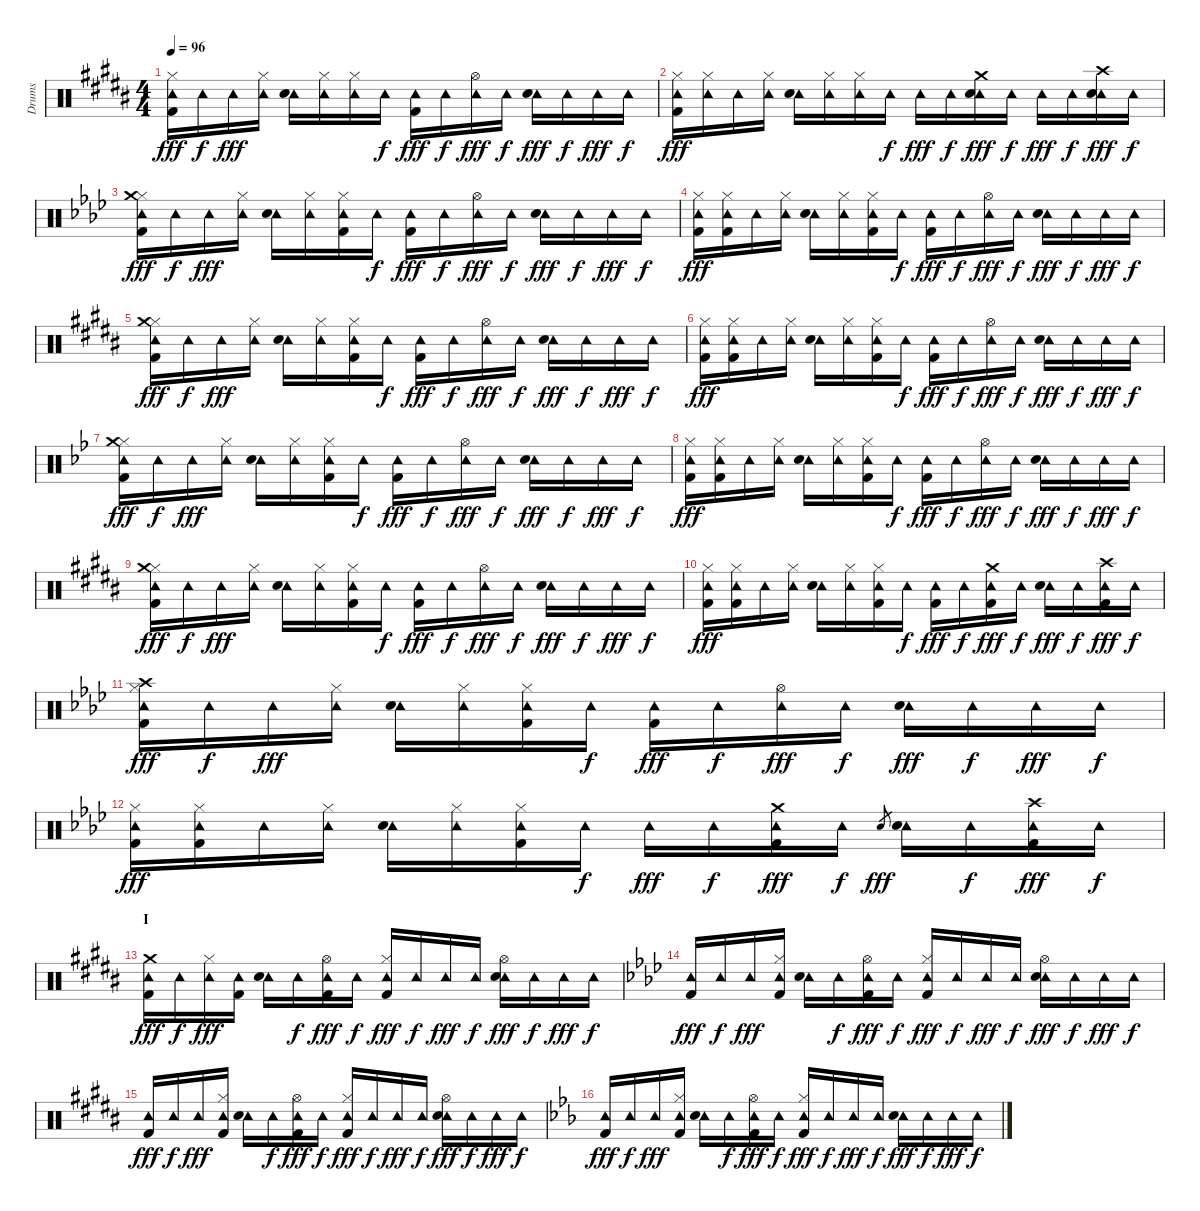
\track ("Drums" "Drums") {instrument percussion}
\staff {score}
\articulation defaults
\ts (4 4)
\tempo 96
\clef neutral
\ks b
("Tambourine (hit)" "Hi-Hat (closed)" "Kick (hit) 2").16{dy fff} "Tambourine (hit)".16{dy f} "Tambourine (hit)".16{dy fff} ("Tambourine (hit)" "Hi-Hat (closed)").16 ("Tambourine (hit)" "Snare (hit) 2").16 ("Tambourine (hit)" "Hi-Hat (closed)").16 ("Tambourine (hit)" "Hi-Hat (closed)").16 "Tambourine (hit)".16{dy f} ("Tambourine (hit)" "Kick (hit) 2").16{dy fff} "Tambourine (hit)".16{dy f} ("Tambourine (hit)" "Hi-Hat (open)").16{dy fff} "Tambourine (hit)".16{dy f} ("Tambourine (hit)" "Snare (hit) 2").16{dy fff} "Tambourine (hit)".16{dy f} "Tambourine (hit)".16{dy fff} "Tambourine (hit)".16{dy f} |
("Tambourine (hit)" "Hi-Hat (closed)" "Kick (hit) 2").16{dy fff} ("Tambourine (hit)" "Hi-Hat (closed)").16 "Tambourine (hit)".16 ("Tambourine (hit)" "Hi-Hat (closed)").16 ("Tambourine (hit)" "Snare (hit) 2").16 ("Tambourine (hit)" "Hi-Hat (closed)").16 ("Tambourine (hit)" "Hi-Hat (closed)").16 "Tambourine (hit)".16{dy f} "Tambourine (hit)".16{dy fff} "Tambourine (hit)".16{dy f} ("Tambourine (hit)" "Crash medium (hit)" "Snare (hit) 2").16{dy fff} "Tambourine (hit)".16{dy f} "Tambourine (hit)".16{dy fff} "Tambourine (hit)".16{dy f} ("Tambourine (hit)" "Crash high (hit)" "Snare (hit) 2").16{dy fff} "Tambourine (hit)".16{dy f} |
\ks ab
("Tambourine (hit)" "Hi-Hat (closed)" "Crash medium (hit)" "Kick (hit) 2").16{dy fff} "Tambourine (hit)".16{dy f} "Tambourine (hit)".16{dy fff} ("Tambourine (hit)" "Hi-Hat (closed)").16 ("Tambourine (hit)" "Snare (hit) 2").16 ("Tambourine (hit)" "Hi-Hat (closed)").16 ("Tambourine (hit)" "Hi-Hat (closed)" "Kick (hit) 2").16 "Tambourine (hit)".16{dy f} ("Tambourine (hit)" "Kick (hit) 2").16{dy fff} "Tambourine (hit)".16{dy f} ("Tambourine (hit)" "Hi-Hat (open)").16{dy fff} "Tambourine (hit)".16{dy f} ("Tambourine (hit)" "Snare (hit) 2").16{dy fff} "Tambourine (hit)".16{dy f} "Tambourine (hit)".16{dy fff} "Tambourine (hit)".16{dy f} |
("Tambourine (hit)" "Hi-Hat (closed)" "Kick (hit) 2").16{dy fff} ("Tambourine (hit)" "Hi-Hat (closed)" "Kick (hit) 2").16 "Tambourine (hit)".16 ("Tambourine (hit)" "Hi-Hat (closed)").16 ("Tambourine (hit)" "Snare (hit) 2").16 ("Tambourine (hit)" "Hi-Hat (closed)").16 ("Tambourine (hit)" "Hi-Hat (closed)" "Kick (hit) 2").16 "Tambourine (hit)".16{dy f} ("Tambourine (hit)" "Kick (hit) 2").16{dy fff} "Tambourine (hit)".16{dy f} ("Tambourine (hit)" "Hi-Hat (open)").16{dy fff} "Tambourine (hit)".16{dy f} ("Tambourine (hit)" "Snare (hit) 2").16{dy fff} "Tambourine (hit)".16{dy f} "Tambourine (hit)".16{dy fff} "Tambourine (hit)".16{dy f} |
\ks b
("Tambourine (hit)" "Hi-Hat (closed)" "Crash medium (hit)" "Kick (hit) 2").16{dy fff} "Tambourine (hit)".16{dy f} "Tambourine (hit)".16{dy fff} ("Tambourine (hit)" "Hi-Hat (closed)").16 ("Tambourine (hit)" "Snare (hit) 2").16 ("Tambourine (hit)" "Hi-Hat (closed)").16 ("Tambourine (hit)" "Hi-Hat (closed)" "Kick (hit) 2").16 "Tambourine (hit)".16{dy f} ("Tambourine (hit)" "Kick (hit) 2").16{dy fff} "Tambourine (hit)".16{dy f} ("Tambourine (hit)" "Hi-Hat (open)").16{dy fff} "Tambourine (hit)".16{dy f} ("Tambourine (hit)" "Snare (hit) 2").16{dy fff} "Tambourine (hit)".16{dy f} "Tambourine (hit)".16{dy fff} "Tambourine (hit)".16{dy f} |
("Tambourine (hit)" "Hi-Hat (closed)" "Kick (hit) 2").16{dy fff} ("Tambourine (hit)" "Hi-Hat (closed)" "Kick (hit) 2").16 "Tambourine (hit)".16 ("Tambourine (hit)" "Hi-Hat (closed)").16 ("Tambourine (hit)" "Snare (hit) 2").16 ("Tambourine (hit)" "Hi-Hat (closed)").16 ("Tambourine (hit)" "Hi-Hat (closed)" "Kick (hit) 2").16 "Tambourine (hit)".16{dy f} ("Tambourine (hit)" "Kick (hit) 2").16{dy fff} "Tambourine (hit)".16{dy f} ("Tambourine (hit)" "Hi-Hat (open)").16{dy fff} "Tambourine (hit)".16{dy f} ("Tambourine (hit)" "Snare (hit) 2").16{dy fff} "Tambourine (hit)".16{dy f} "Tambourine (hit)".16{dy fff} "Tambourine (hit)".16{dy f} |
\ks bb
("Tambourine (hit)" "Hi-Hat (closed)" "Crash medium (hit)" "Kick (hit) 2").16{dy fff} "Tambourine (hit)".16{dy f} "Tambourine (hit)".16{dy fff} ("Tambourine (hit)" "Hi-Hat (closed)").16 ("Tambourine (hit)" "Snare (hit) 2").16 ("Tambourine (hit)" "Hi-Hat (closed)").16 ("Tambourine (hit)" "Hi-Hat (closed)" "Kick (hit) 2").16 "Tambourine (hit)".16{dy f} ("Tambourine (hit)" "Kick (hit) 2").16{dy fff} "Tambourine (hit)".16{dy f} ("Tambourine (hit)" "Hi-Hat (open)").16{dy fff} "Tambourine (hit)".16{dy f} ("Tambourine (hit)" "Snare (hit) 2").16{dy fff} "Tambourine (hit)".16{dy f} "Tambourine (hit)".16{dy fff} "Tambourine (hit)".16{dy f} |
("Tambourine (hit)" "Hi-Hat (closed)" "Kick (hit) 2").16{dy fff} ("Tambourine (hit)" "Hi-Hat (closed)" "Kick (hit) 2").16 "Tambourine (hit)".16 ("Tambourine (hit)" "Hi-Hat (closed)").16 ("Tambourine (hit)" "Snare (hit) 2").16 ("Tambourine (hit)" "Hi-Hat (closed)").16 ("Tambourine (hit)" "Hi-Hat (closed)" "Kick (hit) 2").16 "Tambourine (hit)".16{dy f} ("Tambourine (hit)" "Kick (hit) 2").16{dy fff} "Tambourine (hit)".16{dy f} ("Tambourine (hit)" "Hi-Hat (open)").16{dy fff} "Tambourine (hit)".16{dy f} ("Tambourine (hit)" "Snare (hit) 2").16{dy fff} "Tambourine (hit)".16{dy f} "Tambourine (hit)".16{dy fff} "Tambourine (hit)".16{dy f} |
\ks b
("Tambourine (hit)" "Hi-Hat (closed)" "Crash medium (hit)" "Kick (hit) 2").16{dy fff} "Tambourine (hit)".16{dy f} "Tambourine (hit)".16{dy fff} ("Tambourine (hit)" "Hi-Hat (closed)").16 ("Tambourine (hit)" "Snare (hit) 2").16 ("Tambourine (hit)" "Hi-Hat (closed)").16 ("Tambourine (hit)" "Hi-Hat (closed)" "Kick (hit) 2").16 "Tambourine (hit)".16{dy f} ("Tambourine (hit)" "Kick (hit) 2").16{dy fff} "Tambourine (hit)".16{dy f} ("Tambourine (hit)" "Hi-Hat (open)").16{dy fff} "Tambourine (hit)".16{dy f} ("Tambourine (hit)" "Snare (hit) 2").16{dy fff} "Tambourine (hit)".16{dy f} "Tambourine (hit)".16{dy fff} "Tambourine (hit)".16{dy f} |
("Tambourine (hit)" "Hi-Hat (closed)" "Kick (hit) 2").16{dy fff} ("Tambourine (hit)" "Hi-Hat (closed)" "Kick (hit) 2").16 "Tambourine (hit)".16 ("Tambourine (hit)" "Hi-Hat (closed)").16 ("Tambourine (hit)" "Snare (hit) 2").16 ("Tambourine (hit)" "Hi-Hat (closed)").16 ("Tambourine (hit)" "Hi-Hat (closed)" "Kick (hit) 2").16 "Tambourine (hit)".16{dy f} ("Tambourine (hit)" "Kick (hit) 2").16{dy fff} "Tambourine (hit)".16{dy f} ("Tambourine (hit)" "Crash medium (hit)" "Kick (hit) 2").16{dy fff} "Tambourine (hit)".16{dy f} ("Tambourine (hit)" "Snare (hit) 2").16{dy fff} "Tambourine (hit)".16{dy f} ("Tambourine (hit)" "Crash high (hit)" "Kick (hit) 2").16{dy fff} "Tambourine (hit)".16{dy f} |
\ks ab
("Tambourine (hit)" "Hi-Hat (closed)" "Crash high (hit)" "Kick (hit) 2").16{dy fff} "Tambourine (hit)".16{dy f} "Tambourine (hit)".16{dy fff} ("Tambourine (hit)" "Hi-Hat (closed)").16 ("Tambourine (hit)" "Snare (hit) 2").16 ("Tambourine (hit)" "Hi-Hat (closed)").16 ("Tambourine (hit)" "Hi-Hat (closed)" "Kick (hit) 2").16 "Tambourine (hit)".16{dy f} ("Tambourine (hit)" "Kick (hit) 2").16{dy fff} "Tambourine (hit)".16{dy f} ("Tambourine (hit)" "Hi-Hat (open)").16{dy fff} "Tambourine (hit)".16{dy f} ("Tambourine (hit)" "Snare (hit) 2").16{dy fff} "Tambourine (hit)".16{dy f} "Tambourine (hit)".16{dy fff} "Tambourine (hit)".16{dy f} |
("Tambourine (hit)" "Hi-Hat (closed)" "Kick (hit) 2").16{dy fff} ("Tambourine (hit)" "Hi-Hat (closed)" "Kick (hit) 2").16 "Tambourine (hit)".16 ("Tambourine (hit)" "Hi-Hat (closed)").16 ("Tambourine (hit)" "Snare (hit) 2").16 ("Tambourine (hit)" "Hi-Hat (closed)").16 ("Tambourine (hit)" "Hi-Hat (closed)" "Kick (hit) 2").16 "Tambourine (hit)".16{dy f} "Tambourine (hit)".16{dy fff} "Tambourine (hit)".16{dy f} ("Tambourine (hit)" "Crash medium (hit)" "Kick (hit) 2").16{dy fff} "Tambourine (hit)".16{dy f} "Snare (hit) 2".8{gr dy fff} ("Tambourine (hit)" "Snare (hit) 2").16 "Tambourine (hit)".16{dy f} ("Tambourine (hit)" "Crash high (hit)" "Kick (hit) 2").16{dy fff} "Tambourine (hit)".16{dy f} |
\section ("" "I")
\ks b
("Tambourine (hit)" "Crash medium (hit)" "Kick (hit) 2").16{dy fff} "Tambourine (hit)".16{dy f} ("Tambourine (hit)" "Hi-Hat (closed)").16{dy fff} ("Tambourine (hit)" "Kick (hit) 2").16 ("Tambourine (hit)" "Snare (hit) 2").16 "Tambourine (hit)".16{dy f} ("Tambourine (hit)" "Hi-Hat (open)" "Kick (hit) 2").16{dy fff} "Tambourine (hit)".16{dy f} ("Tambourine (hit)" "Hi-Hat (closed)" "Kick (hit) 2").16{dy fff} "Tambourine (hit)".16{dy f} "Tambourine (hit)".16{dy fff} "Tambourine (hit)".16{dy f} ("Tambourine (hit)" "Hi-Hat (open)" "Snare (hit) 2").16{dy fff} "Tambourine (hit)".16{dy f} "Tambourine (hit)".16{dy fff} "Tambourine (hit)".16{dy f} |
\ks ab
("Tambourine (hit)" "Kick (hit) 2").16{dy fff} "Tambourine (hit)".16{dy f} "Tambourine (hit)".16{dy fff} ("Tambourine (hit)" "Hi-Hat (closed)" "Kick (hit) 2").16 ("Tambourine (hit)" "Snare (hit) 2").16 "Tambourine (hit)".16{dy f} ("Tambourine (hit)" "Hi-Hat (open)" "Kick (hit) 2").16{dy fff} "Tambourine (hit)".16{dy f} ("Tambourine (hit)" "Hi-Hat (closed)" "Kick (hit) 2").16{dy fff} "Tambourine (hit)".16{dy f} "Tambourine (hit)".16{dy fff} "Tambourine (hit)".16{dy f} ("Tambourine (hit)" "Hi-Hat (open)" "Snare (hit) 2").16{dy fff} "Tambourine (hit)".16{dy f} "Tambourine (hit)".16{dy fff} "Tambourine (hit)".16{dy f} |
\ks b
("Tambourine (hit)" "Kick (hit) 2").16{dy fff} "Tambourine (hit)".16{dy f} "Tambourine (hit)".16{dy fff} ("Tambourine (hit)" "Hi-Hat (closed)" "Kick (hit) 2").16 ("Tambourine (hit)" "Snare (hit) 2").16 "Tambourine (hit)".16{dy f} ("Tambourine (hit)" "Hi-Hat (open)" "Kick (hit) 2").16{dy fff} "Tambourine (hit)".16{dy f} ("Tambourine (hit)" "Hi-Hat (closed)" "Kick (hit) 2").16{dy fff} "Tambourine (hit)".16{dy f} "Tambourine (hit)".16{dy fff} "Tambourine (hit)".16{dy f} ("Tambourine (hit)" "Hi-Hat (open)" "Snare (hit) 2").16{dy fff} "Tambourine (hit)".16{dy f} "Tambourine (hit)".16{dy fff} "Tambourine (hit)".16{dy f} |
\ks eb
("Tambourine (hit)" "Kick (hit) 2").16{dy fff} "Tambourine (hit)".16{dy f} "Tambourine (hit)".16{dy fff} ("Tambourine (hit)" "Hi-Hat (closed)" "Kick (hit) 2").16 ("Tambourine (hit)" "Snare (hit) 2").16 "Tambourine (hit)".16{dy f} ("Tambourine (hit)" "Hi-Hat (open)" "Kick (hit) 2").16{dy fff} "Tambourine (hit)".16{dy f} ("Tambourine (hit)" "Hi-Hat (closed)" "Kick (hit) 2").16{dy fff} "Tambourine (hit)".16{dy f} "Tambourine (hit)".16{dy fff} "Tambourine (hit)".16{dy f} ("Tambourine (hit)" "Snare (hit) 2").16{dy fff} "Tambourine (hit)".16{dy f} "Tambourine (hit)".16{dy fff} "Tambourine (hit)".16{dy f}
